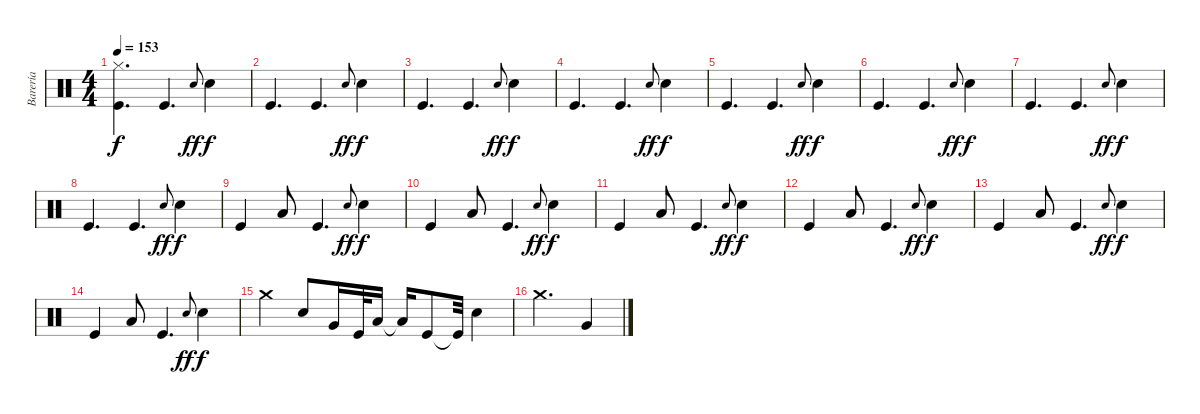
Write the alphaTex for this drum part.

\track ("Barería" "Barería") {instrument percussion}
\staff {score}
\articulation defaults
\ts (4 4)
\tempo 153
\clef neutral
\ks c
("Hi-Hat (closed)" "Kick (hit)").4{d dy f} "Kick (hit)".4{d} "Snare (hit) 2".8{gr onbeat dy ff} "Snare (hit) 2".4{dy f} |
"Kick (hit)".4{d} "Kick (hit)".4{d} "Snare (hit) 2".8{gr onbeat dy ff} "Snare (hit) 2".4{dy f} |
"Kick (hit)".4{d} "Kick (hit)".4{d} "Snare (hit) 2".8{gr onbeat dy ff} "Snare (hit) 2".4{dy f} |
"Kick (hit)".4{d} "Kick (hit)".4{d} "Snare (hit) 2".8{gr onbeat dy ff} "Snare (hit) 2".4{dy f} |
"Kick (hit)".4{d} "Kick (hit)".4{d} "Snare (hit) 2".8{gr onbeat dy ff} "Snare (hit) 2".4{dy f} |
"Kick (hit)".4{d} "Kick (hit)".4{d} "Snare (hit) 2".8{gr onbeat dy ff} "Snare (hit) 2".4{dy f} |
"Kick (hit)".4{d} "Kick (hit)".4{d} "Snare (hit) 2".8{gr onbeat dy ff} "Snare (hit) 2".4{dy f} |
"Kick (hit)".4{d} "Kick (hit)".4{d} "Snare (hit) 2".8{gr onbeat dy ff} "Snare (hit) 2".4{dy f} |
"Kick (hit)".4 "Low Floor Tom (hit)".8 "Kick (hit)".4{d} "Snare (hit) 2".8{gr onbeat dy ff} "Snare (hit) 2".4{dy f} |
"Kick (hit)".4 "Low Floor Tom (hit)".8 "Kick (hit)".4{d} "Snare (hit) 2".8{gr onbeat dy ff} "Snare (hit) 2".4{dy f} |
"Kick (hit)".4 "Low Floor Tom (hit)".8 "Kick (hit)".4{d} "Snare (hit) 2".8{gr onbeat dy ff} "Snare (hit) 2".4{dy f} |
"Kick (hit)".4 "Low Floor Tom (hit)".8 "Kick (hit)".4{d} "Snare (hit) 2".8{gr onbeat dy ff} "Snare (hit) 2".4{dy f} |
"Kick (hit)".4 "Low Floor Tom (hit)".8 "Kick (hit)".4{d} "Snare (hit) 2".8{gr onbeat dy ff} "Snare (hit) 2".4{dy f} |
"Kick (hit)".4 "Low Floor Tom (hit)".8 "Kick (hit)".4{d} "Snare (hit) 2".8{gr onbeat dy ff} "Snare (hit) 2".4{dy f} |
"Crash medium (hit)".4 "Snare (hit) 2".8 "Very Low Tom (hit)".16 "Kick (hit)".32 "Low Floor Tom (hit)".16 "Low Floor Tom (hit)"{t}.16 "Kick (hit)".8 "Kick (hit)"{t}.32 "Snare (hit) 2".4 |
"Crash medium (hit)".2{d} "Very Low Tom (hit)".4
